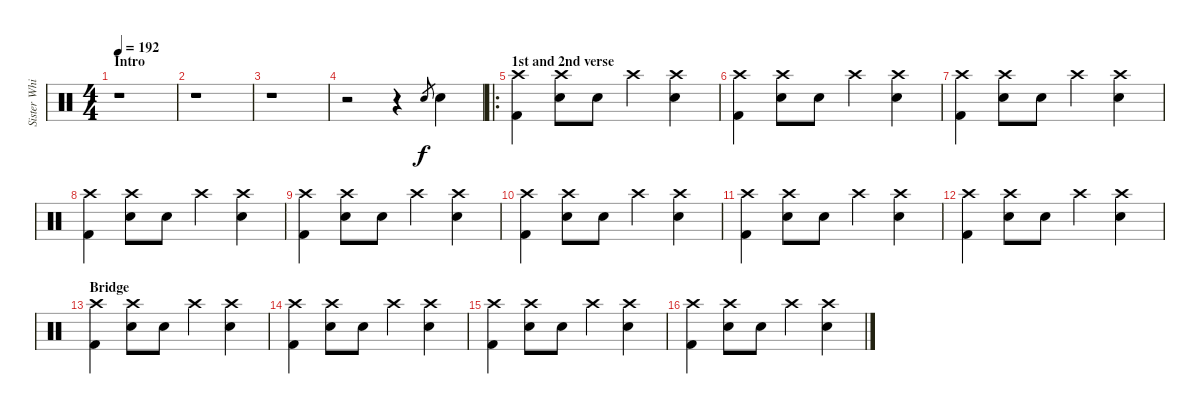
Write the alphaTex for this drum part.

\track ("Sister White" "Sister Whi") {instrument percussion}
\staff {score}
\articulation defaults
\ts (4 4)
\section ("" "Intro")
\tempo 192
\clef neutral
\ks c
r.1{dy f} |
r.1 |
r.1 |
r.2 r.4 "Electric Snare (hit)".8{gr} "Electric Snare (hit)".4 |
\ro
\section ("" "1st and 2nd verse")
("Crash high (hit)" "Kick (hit) 2").4 ("Crash high (hit)" "Electric Snare (hit)").8 "Electric Snare (hit)".8 "Crash high (hit)".4 ("Crash high (hit)" "Electric Snare (hit)").4 |
("Crash high (hit)" "Kick (hit) 2").4 ("Crash high (hit)" "Electric Snare (hit)").8 "Electric Snare (hit)".8 "Crash high (hit)".4 ("Crash high (hit)" "Electric Snare (hit)").4 |
("Crash high (hit)" "Kick (hit) 2").4 ("Crash high (hit)" "Electric Snare (hit)").8 "Electric Snare (hit)".8 "Crash high (hit)".4 ("Crash high (hit)" "Electric Snare (hit)").4 |
("Crash high (hit)" "Kick (hit) 2").4 ("Crash high (hit)" "Electric Snare (hit)").8 "Electric Snare (hit)".8 "Crash high (hit)".4 ("Crash high (hit)" "Electric Snare (hit)").4 |
("Crash high (hit)" "Kick (hit) 2").4 ("Crash high (hit)" "Electric Snare (hit)").8 "Electric Snare (hit)".8 "Crash high (hit)".4 ("Crash high (hit)" "Electric Snare (hit)").4 |
("Crash high (hit)" "Kick (hit) 2").4 ("Crash high (hit)" "Electric Snare (hit)").8 "Electric Snare (hit)".8 "Crash high (hit)".4 ("Crash high (hit)" "Electric Snare (hit)").4 |
("Crash high (hit)" "Kick (hit) 2").4 ("Crash high (hit)" "Electric Snare (hit)").8 "Electric Snare (hit)".8 "Crash high (hit)".4 ("Crash high (hit)" "Electric Snare (hit)").4 |
("Crash high (hit)" "Kick (hit) 2").4 ("Crash high (hit)" "Electric Snare (hit)").8 "Electric Snare (hit)".8 "Crash high (hit)".4 ("Crash high (hit)" "Electric Snare (hit)").4 |
\section ("" "Bridge")
("Crash high (hit)" "Kick (hit) 2").4 ("Crash high (hit)" "Electric Snare (hit)").8 "Electric Snare (hit)".8 "Crash high (hit)".4 ("Crash high (hit)" "Electric Snare (hit)").4 |
("Crash high (hit)" "Kick (hit) 2").4 ("Crash high (hit)" "Electric Snare (hit)").8 "Electric Snare (hit)".8 "Crash high (hit)".4 ("Crash high (hit)" "Electric Snare (hit)").4 |
("Crash high (hit)" "Kick (hit) 2").4 ("Crash high (hit)" "Electric Snare (hit)").8 "Electric Snare (hit)".8 "Crash high (hit)".4 ("Crash high (hit)" "Electric Snare (hit)").4 |
("Crash high (hit)" "Kick (hit) 2").4 ("Crash high (hit)" "Electric Snare (hit)").8 "Electric Snare (hit)".8 "Crash high (hit)".4 ("Crash high (hit)" "Electric Snare (hit)").4
